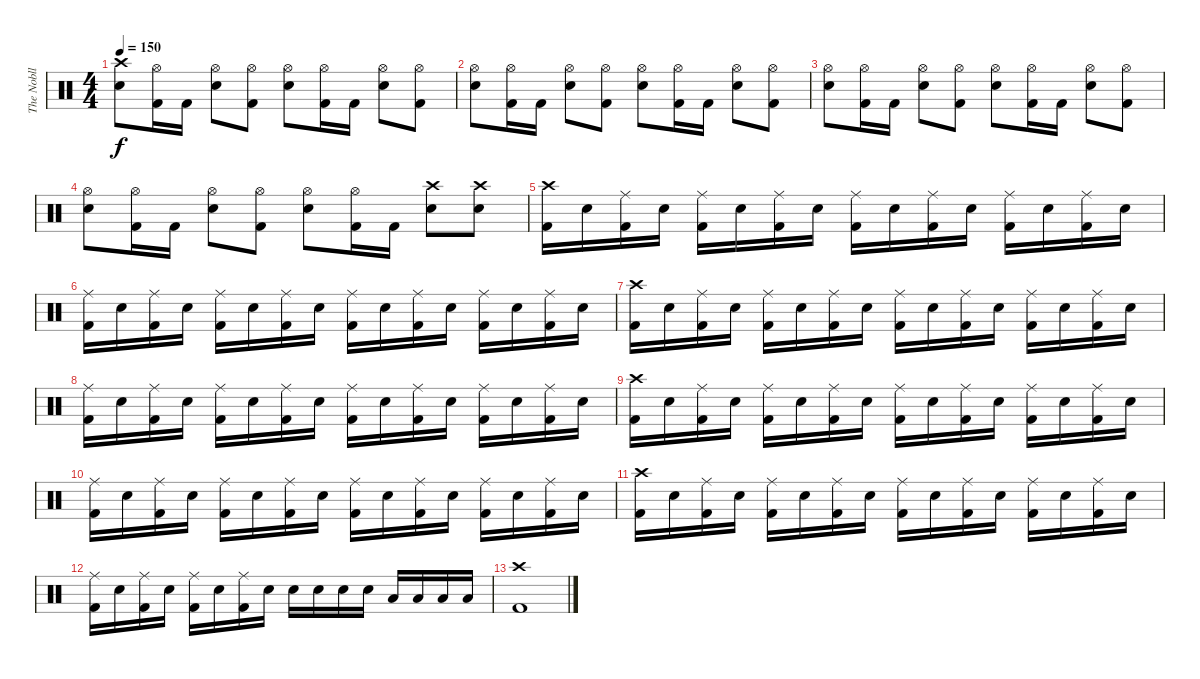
\track ("The Nobll" "The Nobll") {instrument percussion}
\staff {score}
\articulation defaults
\ts (4 4)
\tempo 150
\clef neutral
\ks c
("Crash high (hit)" "Snare (hit) 2").8{dy f} ("Hi-Hat (open)" "Kick (hit) 2").16 "Kick (hit) 2".16 ("Hi-Hat (open)" "Snare (hit) 2").8 ("Hi-Hat (open)" "Kick (hit) 2").8 ("Hi-Hat (open)" "Snare (hit) 2").8 ("Hi-Hat (open)" "Kick (hit) 2").16 "Kick (hit) 2".16 ("Hi-Hat (open)" "Snare (hit) 2").8 ("Hi-Hat (open)" "Kick (hit) 2").8 |
("Hi-Hat (open)" "Snare (hit) 2").8 ("Hi-Hat (open)" "Kick (hit) 2").16 "Kick (hit) 2".16 ("Hi-Hat (open)" "Snare (hit) 2").8 ("Hi-Hat (open)" "Kick (hit) 2").8 ("Hi-Hat (open)" "Snare (hit) 2").8 ("Hi-Hat (open)" "Kick (hit) 2").16 "Kick (hit) 2".16 ("Hi-Hat (open)" "Snare (hit) 2").8 ("Hi-Hat (open)" "Kick (hit) 2").8 |
("Hi-Hat (open)" "Snare (hit) 2").8 ("Hi-Hat (open)" "Kick (hit) 2").16 "Kick (hit) 2".16 ("Hi-Hat (open)" "Snare (hit) 2").8 ("Hi-Hat (open)" "Kick (hit) 2").8 ("Hi-Hat (open)" "Snare (hit) 2").8 ("Hi-Hat (open)" "Kick (hit) 2").16 "Kick (hit) 2".16 ("Hi-Hat (open)" "Snare (hit) 2").8 ("Hi-Hat (open)" "Kick (hit) 2").8 |
("Hi-Hat (open)" "Snare (hit) 2").8 ("Hi-Hat (open)" "Kick (hit) 2").16 "Kick (hit) 2".16 ("Hi-Hat (open)" "Snare (hit) 2").8 ("Hi-Hat (open)" "Kick (hit) 2").8 ("Hi-Hat (open)" "Snare (hit) 2").8 ("Hi-Hat (open)" "Kick (hit) 2").16 "Kick (hit) 2".16 ("Crash high (hit)" "Snare (hit) 2").8 ("Crash high (hit)" "Snare (hit) 2").8 |
("Crash high (hit)" "Kick (hit) 2").16 "Snare (hit) 2".16 ("Ride (middle)" "Kick (hit) 2").16 "Snare (hit) 2".16 ("Ride (middle)" "Kick (hit) 2").16 "Snare (hit) 2".16 ("Ride (middle)" "Kick (hit) 2").16 "Snare (hit) 2".16 ("Ride (middle)" "Kick (hit) 2").16 "Snare (hit) 2".16 ("Ride (middle)" "Kick (hit) 2").16 "Snare (hit) 2".16 ("Ride (middle)" "Kick (hit) 2").16 "Snare (hit) 2".16 ("Ride (middle)" "Kick (hit) 2").16 "Snare (hit) 2".16 |
("Ride (middle)" "Kick (hit) 2").16 "Snare (hit) 2".16 ("Ride (middle)" "Kick (hit) 2").16 "Snare (hit) 2".16 ("Ride (middle)" "Kick (hit) 2").16 "Snare (hit) 2".16 ("Ride (middle)" "Kick (hit) 2").16 "Snare (hit) 2".16 ("Ride (middle)" "Kick (hit) 2").16 "Snare (hit) 2".16 ("Ride (middle)" "Kick (hit) 2").16 "Snare (hit) 2".16 ("Ride (middle)" "Kick (hit) 2").16 "Snare (hit) 2".16 ("Ride (middle)" "Kick (hit) 2").16 "Snare (hit) 2".16 |
("Crash high (hit)" "Kick (hit) 2").16 "Snare (hit) 2".16 ("Ride (middle)" "Kick (hit) 2").16 "Snare (hit) 2".16 ("Ride (middle)" "Kick (hit) 2").16 "Snare (hit) 2".16 ("Ride (middle)" "Kick (hit) 2").16 "Snare (hit) 2".16 ("Ride (middle)" "Kick (hit) 2").16 "Snare (hit) 2".16 ("Ride (middle)" "Kick (hit) 2").16 "Snare (hit) 2".16 ("Ride (middle)" "Kick (hit) 2").16 "Snare (hit) 2".16 ("Ride (middle)" "Kick (hit) 2").16 "Snare (hit) 2".16 |
("Ride (middle)" "Kick (hit) 2").16 "Snare (hit) 2".16 ("Ride (middle)" "Kick (hit) 2").16 "Snare (hit) 2".16 ("Ride (middle)" "Kick (hit) 2").16 "Snare (hit) 2".16 ("Ride (middle)" "Kick (hit) 2").16 "Snare (hit) 2".16 ("Ride (middle)" "Kick (hit) 2").16 "Snare (hit) 2".16 ("Ride (middle)" "Kick (hit) 2").16 "Snare (hit) 2".16 ("Ride (middle)" "Kick (hit) 2").16 "Snare (hit) 2".16 ("Ride (middle)" "Kick (hit) 2").16 "Snare (hit) 2".16 |
("Crash high (hit)" "Kick (hit) 2").16 "Snare (hit) 2".16 ("Ride (middle)" "Kick (hit) 2").16 "Snare (hit) 2".16 ("Ride (middle)" "Kick (hit) 2").16 "Snare (hit) 2".16 ("Ride (middle)" "Kick (hit) 2").16 "Snare (hit) 2".16 ("Ride (middle)" "Kick (hit) 2").16 "Snare (hit) 2".16 ("Ride (middle)" "Kick (hit) 2").16 "Snare (hit) 2".16 ("Ride (middle)" "Kick (hit) 2").16 "Snare (hit) 2".16 ("Ride (middle)" "Kick (hit) 2").16 "Snare (hit) 2".16 |
("Ride (middle)" "Kick (hit) 2").16 "Snare (hit) 2".16 ("Ride (middle)" "Kick (hit) 2").16 "Snare (hit) 2".16 ("Ride (middle)" "Kick (hit) 2").16 "Snare (hit) 2".16 ("Ride (middle)" "Kick (hit) 2").16 "Snare (hit) 2".16 ("Ride (middle)" "Kick (hit) 2").16 "Snare (hit) 2".16 ("Ride (middle)" "Kick (hit) 2").16 "Snare (hit) 2".16 ("Ride (middle)" "Kick (hit) 2").16 "Snare (hit) 2".16 ("Ride (middle)" "Kick (hit) 2").16 "Snare (hit) 2".16 |
("Crash high (hit)" "Kick (hit) 2").16 "Snare (hit) 2".16 ("Ride (middle)" "Kick (hit) 2").16 "Snare (hit) 2".16 ("Ride (middle)" "Kick (hit) 2").16 "Snare (hit) 2".16 ("Ride (middle)" "Kick (hit) 2").16 "Snare (hit) 2".16 ("Ride (middle)" "Kick (hit) 2").16 "Snare (hit) 2".16 ("Ride (middle)" "Kick (hit) 2").16 "Snare (hit) 2".16 ("Ride (middle)" "Kick (hit) 2").16 "Snare (hit) 2".16 ("Ride (middle)" "Kick (hit) 2").16 "Snare (hit) 2".16 |
("Ride (middle)" "Kick (hit) 2").16 "Snare (hit) 2".16 ("Ride (middle)" "Kick (hit) 2").16 "Snare (hit) 2".16 ("Ride (middle)" "Kick (hit) 2").16 "Snare (hit) 2".16 ("Ride (middle)" "Kick (hit) 2").16 "Snare (hit) 2".16 "Snare (hit) 2".16 "Snare (hit) 2".16 "Snare (hit) 2".16 "Snare (hit) 2".16 "Low Tom (hit)".16 "Low Tom (hit)".16 "Low Tom (hit)".16 "Low Tom (hit)".16 |
("Crash high (hit)" "Kick (hit) 2").1
